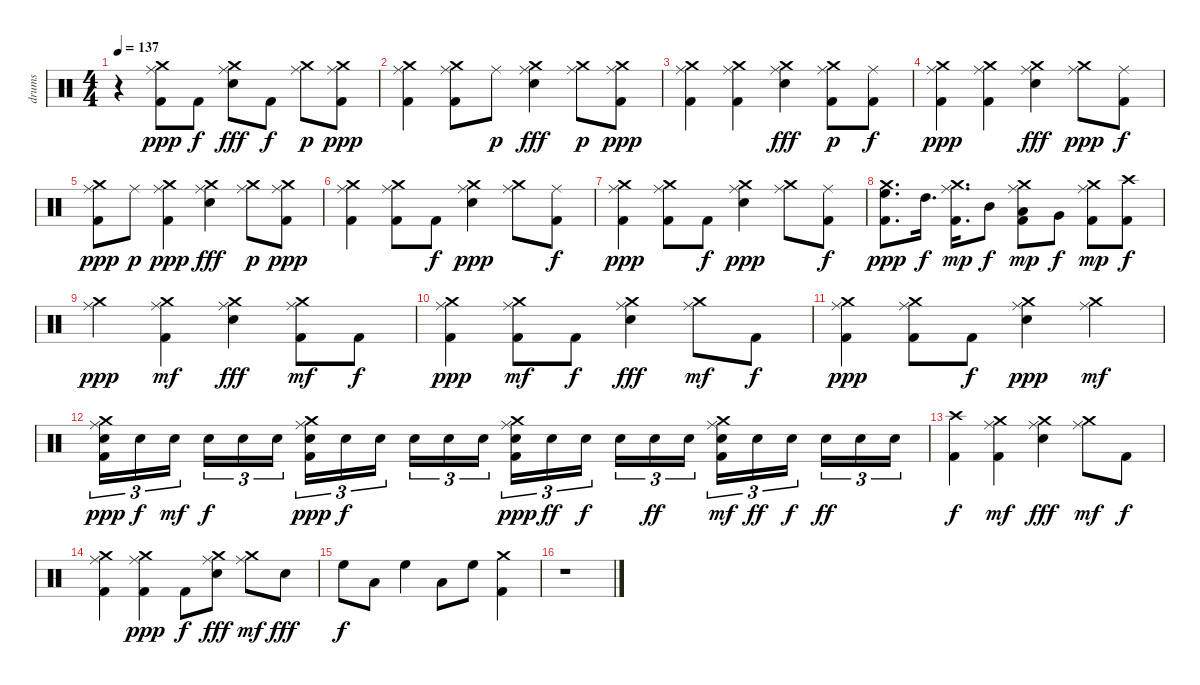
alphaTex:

\track ("drums" "drums") {instrument percussion}
\staff {score}
\articulation defaults
\ts (4 4)
\tempo 137
\clef neutral
\ks c
r.4{dy mf} ("Crash medium (hit)" "Kick (hit) 2" "Ride (middle)").8{dy ppp} "Kick (hit) 2".8{dy f} ("Crash medium (hit)" "Ride (middle)" "Electric Snare (hit)").8{dy fff} "Kick (hit) 2".8{dy f} ("Crash medium (hit)" "Ride (middle)").8{dy p} ("Crash medium (hit)" "Ride (middle)" "Kick (hit) 2").8{dy ppp} |
("Crash medium (hit)" "Kick (hit) 2" "Ride (middle)").4 ("Crash medium (hit)" "Ride (middle)" "Kick (hit) 2").8 "Ride (middle)".8{dy p} ("Crash medium (hit)" "Ride (middle)" "Electric Snare (hit)").4{dy fff} ("Crash medium (hit)" "Ride (middle)").8{dy p} ("Crash medium (hit)" "Ride (middle)" "Kick (hit) 2").8{dy ppp} |
("Crash medium (hit)" "Ride (middle)" "Kick (hit) 2").4 ("Crash medium (hit)" "Ride (middle)" "Kick (hit) 2").4 ("Crash medium (hit)" "Ride (middle)" "Electric Snare (hit)").4{dy fff} ("Crash medium (hit)" "Ride (middle)" "Kick (hit) 2").8{dy p} ("Ride (middle)" "Kick (hit) 2").8{dy f} |
("Crash medium (hit)" "Ride (middle)" "Kick (hit) 2").4{dy ppp} ("Crash medium (hit)" "Ride (middle)" "Kick (hit) 2").4 ("Crash medium (hit)" "Ride (middle)" "Electric Snare (hit)").4{dy fff} ("Ride (middle)" "Crash medium (hit)").8{dy ppp} ("Ride (middle)" "Kick (hit) 2").8{dy f} |
("Crash medium (hit)" "Ride (middle)" "Kick (hit) 2").8{dy ppp} "Ride (middle)".8{dy p} ("Ride (middle)" "Crash medium (hit)" "Kick (hit) 2").4{dy ppp} ("Crash medium (hit)" "Ride (middle)" "Electric Snare (hit)").4{dy fff} ("Crash medium (hit)" "Ride (middle)").8{dy p} ("Kick (hit) 2" "Crash medium (hit)" "Ride (middle)").8{dy ppp} |
("Kick (hit) 2" "Crash medium (hit)" "Ride (middle)").4 ("Kick (hit) 2" "Crash medium (hit)" "Ride (middle)").8 "Kick (hit) 2".8{dy f} ("Electric Snare (hit)" "Crash medium (hit)" "Ride (middle)").4{dy ppp} ("Ride (middle)" "Crash medium (hit)").8 ("Kick (hit) 2" "Ride (middle)").8{dy f} |
("Kick (hit) 2" "Crash medium (hit)" "Ride (middle)").4{dy ppp} ("Kick (hit) 2" "Ride (middle)" "Crash medium (hit)").8 "Kick (hit) 2".8{dy f} ("Electric Snare (hit)" "Crash medium (hit)" "Ride (middle)").4{dy ppp} ("Ride (middle)" "Crash medium (hit)").8 ("Kick (hit) 2" "Ride (middle)").8{dy f} |
("Kick (hit) 2" "High Floor Tom (hit)" "Crash medium (hit)").8{d dy ppp} "High Tom (hit)".16{d dy f} ("Crash medium (hit)" "Ride (middle)" "Kick (hit) 2").16{d dy mp} "Mid Tom (hit)".8{dy f} ("Crash medium (hit)" "Ride (middle)" "Low Tom (hit)" "Kick (hit) 2").8{dy mp} "Very Low Tom (hit)".8{dy f} ("Crash medium (hit)" "Ride (middle)" "Kick (hit) 2").8{dy mp} ("Kick (hit) 2" "Crash high (hit)").8{dy f} |
("Crash medium (hit)" "Ride (middle)").4{dy ppp} ("Crash medium (hit)" "Kick (hit) 2" "Ride (middle)").4{dy mf} ("Crash medium (hit)" "Electric Snare (hit)" "Ride (middle)").4{dy fff} ("Kick (hit) 2" "Crash medium (hit)" "Ride (middle)").8{dy mf} "Kick (hit) 2".8{dy f} |
("Ride (middle)" "Kick (hit) 2" "Crash medium (hit)").4{dy ppp} ("Crash medium (hit)" "Ride (middle)" "Kick (hit) 2").8{dy mf} "Kick (hit) 2".8{dy f} ("Crash medium (hit)" "Electric Snare (hit)" "Ride (middle)").4{dy fff} ("Crash medium (hit)" "Ride (middle)").8{dy mf} "Kick (hit) 2".8{dy f} |
("Crash medium (hit)" "Ride (middle)" "Kick (hit) 2").4{dy ppp} ("Kick (hit) 2" "Ride (middle)" "Crash medium (hit)").8 "Kick (hit) 2".8{dy f} ("Electric Snare (hit)" "Crash medium (hit)" "Ride (middle)").4{dy ppp} ("Crash medium (hit)" "Ride (middle)").4{dy mf} |
("Electric Snare (hit)" "Crash medium (hit)" "Ride (middle)" "Kick (hit) 2").16{tu (3 2) dy ppp} "Electric Snare (hit)".16{tu (3 2) dy f} "Electric Snare (hit)".16{tu (3 2) dy mf beam splitsecondary} "Electric Snare (hit)".16{tu (3 2) dy f} "Electric Snare (hit)".16{tu (3 2)} "Electric Snare (hit)".16{tu (3 2)} ("Kick (hit) 2" "Electric Snare (hit)" "Ride (middle)" "Crash medium (hit)").16{tu (3 2) dy ppp} "Electric Snare (hit)".16{tu (3 2) dy f} "Electric Snare (hit)".16{tu (3 2) beam splitsecondary} "Electric Snare (hit)".16{tu (3 2)} "Electric Snare (hit)".16{tu (3 2)} "Electric Snare (hit)".16{tu (3 2)} ("Ride (middle)" "Electric Snare (hit)" "Kick (hit) 2" "Crash medium (hit)").16{tu (3 2) dy ppp} "Electric Snare (hit)".16{tu (3 2) dy ff} "Electric Snare (hit)".16{tu (3 2) dy f beam splitsecondary} "Electric Snare (hit)".16{tu (3 2)} "Electric Snare (hit)".16{tu (3 2) dy ff} "Electric Snare (hit)".16{tu (3 2)} ("Kick (hit) 2" "Electric Snare (hit)" "Crash medium (hit)" "Ride (middle)").16{tu (3 2) dy mf} "Electric Snare (hit)".16{tu (3 2) dy ff} "Electric Snare (hit)".16{tu (3 2) dy f beam splitsecondary} "Electric Snare (hit)".16{tu (3 2) dy ff} "Electric Snare (hit)".16{tu (3 2)} "Electric Snare (hit)".16{tu (3 2)} |
("Kick (hit) 2" "Crash high (hit)").4{dy f} ("Crash medium (hit)" "Ride (middle)" "Kick (hit) 2").4{dy mf} ("Crash medium (hit)" "Ride (middle)" "Electric Snare (hit)").4{dy fff} ("Crash medium (hit)" "Ride (middle)").8{dy mf} "Kick (hit) 2".8{dy f} |
("Crash medium (hit)" "Ride (middle)" "Kick (hit) 2").4 ("Crash medium (hit)" "Ride (middle)" "Kick (hit) 2").4{dy ppp} "Kick (hit) 2".8{dy f} ("Crash medium (hit)" "Electric Snare (hit)" "Ride (middle)").8{dy fff} ("Crash medium (hit)" "Ride (middle)").8{dy mf} "Electric Snare (hit)".8{dy fff} |
"High Floor Tom (hit)".8{dy f} "Low Tom (hit)".8 "High Floor Tom (hit)".4 "Low Tom (hit)".8 "High Floor Tom (hit)".8 ("Kick (hit) 2" "Crash medium (hit)").4 |
r.1
